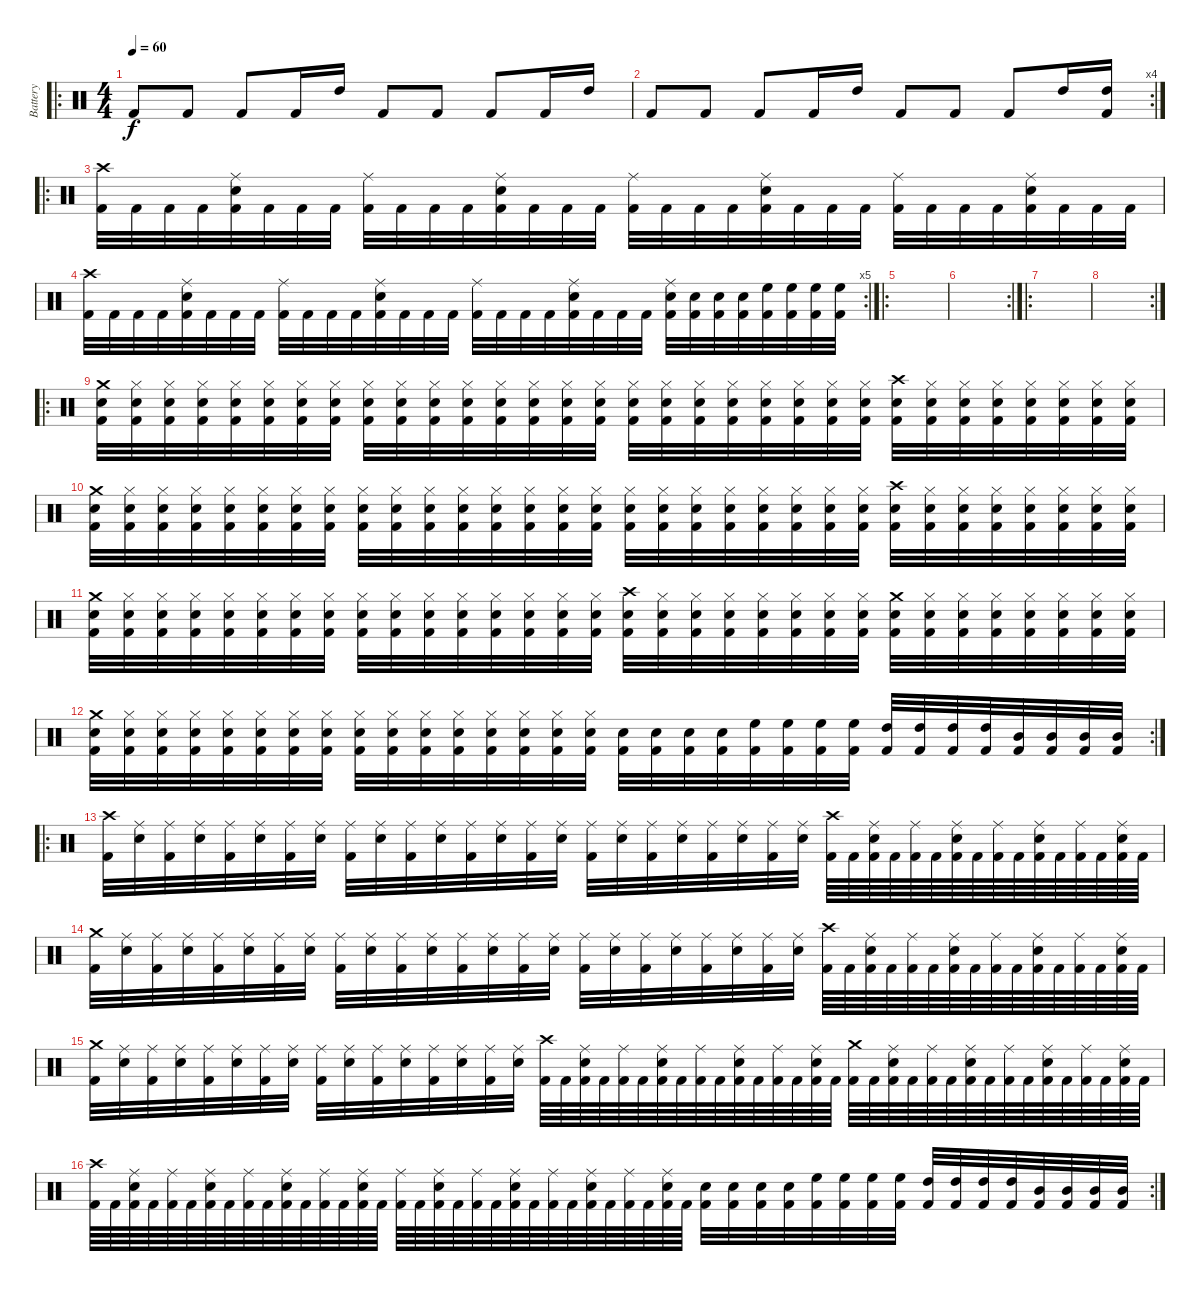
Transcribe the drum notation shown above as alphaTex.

\track ("Battery" "Battery") {instrument percussion}
\staff {score}
\articulation defaults
\ro
\ts (4 4)
\tempo 60
\clef neutral
\ks c "Kick (hit) 2".8{dy f} "Kick (hit) 2".8 "Kick (hit) 2".8 "Kick (hit) 2".16 "High Tom (hit)".16 "Kick (hit) 2".8 "Kick (hit) 2".8 "Kick (hit) 2".8 "Kick (hit) 2".16 "High Tom (hit)".16
|
\rc 4 "Kick (hit) 2".8 "Kick (hit) 2".8 "Kick (hit) 2".8 "Kick (hit) 2".16 "High Tom (hit)".16 "Kick (hit) 2".8 "Kick (hit) 2".8 "Kick (hit) 2".8 "High Tom (hit)".16
("Kick (hit) 2" "High Tom (hit)").16 |
\ro
("Kick (hit) 2" "Crash high (hit)").32 "Kick (hit) 2".32 "Kick (hit) 2".32 "Kick (hit) 2".32 ("Kick (hit) 2" "Ride (middle)" "Snare (hit) 2").32 "Kick (hit) 2".32 "Kick (hit) 2".32 "Kick (hit) 2".32 ("Kick (hit) 2" "Ride (middle)").32 "Kick (hit) 2".32 "Kick (hit) 2".32 "Kick (hit) 2".32 ("Kick (hit) 2" "Ride (middle)" "Snare (hit) 2").32 "Kick (hit) 2".32 "Kick (hit) 2".32 "Kick (hit) 2".32 ("Kick (hit) 2" "Ride (middle)").32 "Kick (hit) 2".32 "Kick (hit) 2".32 "Kick (hit) 2".32 ("Kick (hit) 2" "Ride (middle)" "Snare (hit) 2").32 "Kick (hit) 2".32 "Kick (hit) 2".32 "Kick (hit) 2".32 ("Kick (hit) 2" "Ride (middle)").32 "Kick (hit) 2".32 "Kick (hit) 2".32 "Kick (hit) 2".32 ("Kick (hit) 2" "Ride (middle)" "Snare (hit) 2").32 "Kick (hit) 2".32 "Kick (hit) 2".32 "Kick (hit) 2".32 |
\rc 5
("Kick (hit) 2" "Crash high (hit)").32 "Kick (hit) 2".32 "Kick (hit) 2".32 "Kick (hit) 2".32 ("Kick (hit) 2" "Ride (middle)" "Snare (hit) 2").32 "Kick (hit) 2".32 "Kick (hit) 2".32 "Kick (hit) 2".32 ("Kick (hit) 2" "Ride (middle)").32 "Kick (hit) 2".32 "Kick (hit) 2".32 "Kick (hit) 2".32 ("Kick (hit) 2" "Ride (middle)" "Snare (hit) 2").32 "Kick (hit) 2".32 "Kick (hit) 2".32 "Kick (hit) 2".32 ("Kick (hit) 2" "Ride (middle)").32 "Kick (hit) 2".32 "Kick (hit) 2".32 "Kick (hit) 2".32 ("Kick (hit) 2" "Ride (middle)" "Snare (hit) 2").32 "Kick (hit) 2".32 "Kick (hit) 2".32 "Kick (hit) 2".32 ("Kick (hit) 2" "Ride (middle)" "Snare (hit) 2").32 ("Kick (hit) 2" "Snare (hit) 2").32 ("Kick (hit) 2" "Snare (hit) 2").32 ("Kick (hit) 2" "Snare (hit) 2").32 ("Kick (hit) 2" "High Floor Tom (hit)").32 ("Kick (hit) 2" "High Floor Tom (hit)").32 ("Kick (hit) 2" "High Floor Tom (hit)").32 ("Kick (hit) 2" "High Floor Tom (hit)").32 |
\ro
|
\rc 2
|
\ro
|
\rc 2
|
\ro
("Kick (hit) 2" "Snare (hit) 2" "Crash medium (hit)").32 ("Kick (hit) 2" "Snare (hit) 2" "Hi-Hat (closed)").32 ("Kick (hit) 2" "Snare (hit) 2" "Hi-Hat (closed)").32 ("Kick (hit) 2" "Snare (hit) 2" "Hi-Hat (closed)").32 ("Kick (hit) 2" "Snare (hit) 2" "Hi-Hat (closed)").32 ("Kick (hit) 2" "Snare (hit) 2" "Hi-Hat (closed)").32 ("Kick (hit) 2" "Snare (hit) 2" "Hi-Hat (closed)").32 ("Kick (hit) 2" "Snare (hit) 2" "Hi-Hat (closed)").32 ("Kick (hit) 2" "Snare (hit) 2" "Hi-Hat (closed)").32 ("Kick (hit) 2" "Snare (hit) 2" "Hi-Hat (closed)").32 ("Kick (hit) 2" "Snare (hit) 2" "Hi-Hat (closed)").32 ("Kick (hit) 2" "Snare (hit) 2" "Hi-Hat (closed)").32 ("Kick (hit) 2" "Snare (hit) 2" "Hi-Hat (closed)").32 ("Kick (hit) 2" "Snare (hit) 2" "Hi-Hat (closed)").32 ("Kick (hit) 2" "Snare (hit) 2" "Hi-Hat (closed)").32 ("Kick (hit) 2" "Snare (hit) 2" "Hi-Hat (closed)").32 ("Kick (hit) 2" "Snare (hit) 2" "Hi-Hat (closed)").32 ("Kick (hit) 2" "Snare (hit) 2" "Hi-Hat (closed)").32 ("Kick (hit) 2" "Snare (hit) 2" "Hi-Hat (closed)").32 ("Kick (hit) 2" "Snare (hit) 2" "Hi-Hat (closed)").32 ("Kick (hit) 2" "Snare (hit) 2" "Hi-Hat (closed)").32 ("Kick (hit) 2" "Snare (hit) 2" "Hi-Hat (closed)").32 ("Kick (hit) 2" "Snare (hit) 2" "Hi-Hat (closed)").32 ("Kick (hit) 2" "Snare (hit) 2" "Hi-Hat (closed)").32 ("Kick (hit) 2" "Snare (hit) 2" "Crash high (hit)").32 ("Kick (hit) 2" "Snare (hit) 2" "Hi-Hat (closed)").32 ("Kick (hit) 2" "Snare (hit) 2" "Hi-Hat (closed)").32 ("Kick (hit) 2" "Snare (hit) 2" "Hi-Hat (closed)").32 ("Kick (hit) 2" "Snare (hit) 2" "Hi-Hat (closed)").32 ("Kick (hit) 2" "Snare (hit) 2" "Hi-Hat (closed)").32 ("Kick (hit) 2" "Snare (hit) 2" "Hi-Hat (closed)").32 ("Kick (hit) 2" "Snare (hit) 2" "Hi-Hat (closed)").32 |
("Kick (hit) 2" "Snare (hit) 2" "Crash medium (hit)").32 ("Kick (hit) 2" "Snare (hit) 2" "Hi-Hat (closed)").32 ("Kick (hit) 2" "Snare (hit) 2" "Hi-Hat (closed)").32 ("Kick (hit) 2" "Snare (hit) 2" "Hi-Hat (closed)").32 ("Kick (hit) 2" "Snare (hit) 2" "Hi-Hat (closed)").32 ("Kick (hit) 2" "Snare (hit) 2" "Hi-Hat (closed)").32 ("Kick (hit) 2" "Snare (hit) 2" "Hi-Hat (closed)").32 ("Kick (hit) 2" "Snare (hit) 2" "Hi-Hat (closed)").32 ("Kick (hit) 2" "Snare (hit) 2" "Hi-Hat (closed)").32 ("Kick (hit) 2" "Snare (hit) 2" "Hi-Hat (closed)").32 ("Kick (hit) 2" "Snare (hit) 2" "Hi-Hat (closed)").32 ("Kick (hit) 2" "Snare (hit) 2" "Hi-Hat (closed)").32 ("Kick (hit) 2" "Snare (hit) 2" "Hi-Hat (closed)").32 ("Kick (hit) 2" "Snare (hit) 2" "Hi-Hat (closed)").32 ("Kick (hit) 2" "Snare (hit) 2" "Hi-Hat (closed)").32 ("Kick (hit) 2" "Snare (hit) 2" "Hi-Hat (closed)").32 ("Kick (hit) 2" "Snare (hit) 2" "Hi-Hat (closed)").32 ("Kick (hit) 2" "Snare (hit) 2" "Hi-Hat (closed)").32 ("Kick (hit) 2" "Snare (hit) 2" "Hi-Hat (closed)").32 ("Kick (hit) 2" "Snare (hit) 2" "Hi-Hat (closed)").32 ("Kick (hit) 2" "Snare (hit) 2" "Hi-Hat (closed)").32 ("Kick (hit) 2" "Snare (hit) 2" "Hi-Hat (closed)").32 ("Kick (hit) 2" "Snare (hit) 2" "Hi-Hat (closed)").32 ("Kick (hit) 2" "Snare (hit) 2" "Hi-Hat (closed)").32 ("Kick (hit) 2" "Snare (hit) 2" "Crash high (hit)").32 ("Kick (hit) 2" "Snare (hit) 2" "Hi-Hat (closed)").32 ("Kick (hit) 2" "Snare (hit) 2" "Hi-Hat (closed)").32 ("Kick (hit) 2" "Snare (hit) 2" "Hi-Hat (closed)").32 ("Kick (hit) 2" "Snare (hit) 2" "Hi-Hat (closed)").32 ("Kick (hit) 2" "Snare (hit) 2" "Hi-Hat (closed)").32 ("Kick (hit) 2" "Snare (hit) 2" "Hi-Hat (closed)").32 ("Kick (hit) 2" "Snare (hit) 2" "Hi-Hat (closed)").32 |
("Kick (hit) 2" "Snare (hit) 2" "Crash medium (hit)").32 ("Kick (hit) 2" "Snare (hit) 2" "Hi-Hat (closed)").32 ("Kick (hit) 2" "Snare (hit) 2" "Hi-Hat (closed)").32 ("Kick (hit) 2" "Snare (hit) 2" "Hi-Hat (closed)").32 ("Kick (hit) 2" "Snare (hit) 2" "Hi-Hat (closed)").32 ("Kick (hit) 2" "Snare (hit) 2" "Hi-Hat (closed)").32 ("Kick (hit) 2" "Snare (hit) 2" "Hi-Hat (closed)").32 ("Kick (hit) 2" "Snare (hit) 2" "Hi-Hat (closed)").32 ("Kick (hit) 2" "Snare (hit) 2" "Hi-Hat (closed)").32 ("Kick (hit) 2" "Snare (hit) 2" "Hi-Hat (closed)").32 ("Kick (hit) 2" "Snare (hit) 2" "Hi-Hat (closed)").32 ("Kick (hit) 2" "Snare (hit) 2" "Hi-Hat (closed)").32 ("Kick (hit) 2" "Snare (hit) 2" "Hi-Hat (closed)").32 ("Kick (hit) 2" "Snare (hit) 2" "Hi-Hat (closed)").32 ("Kick (hit) 2" "Snare (hit) 2" "Hi-Hat (closed)").32 ("Kick (hit) 2" "Snare (hit) 2" "Hi-Hat (closed)").32 ("Kick (hit) 2" "Snare (hit) 2" "Crash high (hit)").32 ("Kick (hit) 2" "Snare (hit) 2" "Hi-Hat (closed)").32 ("Kick (hit) 2" "Snare (hit) 2" "Hi-Hat (closed)").32 ("Kick (hit) 2" "Snare (hit) 2" "Hi-Hat (closed)").32 ("Kick (hit) 2" "Snare (hit) 2" "Hi-Hat (closed)").32 ("Kick (hit) 2" "Snare (hit) 2" "Hi-Hat (closed)").32 ("Kick (hit) 2" "Snare (hit) 2" "Hi-Hat (closed)").32 ("Kick (hit) 2" "Snare (hit) 2" "Hi-Hat (closed)").32 ("Kick (hit) 2" "Snare (hit) 2" "Crash medium (hit)").32 ("Kick (hit) 2" "Snare (hit) 2" "Hi-Hat (closed)").32 ("Kick (hit) 2" "Snare (hit) 2" "Hi-Hat (closed)").32 ("Kick (hit) 2" "Snare (hit) 2" "Hi-Hat (closed)").32 ("Kick (hit) 2" "Snare (hit) 2" "Hi-Hat (closed)").32 ("Kick (hit) 2" "Snare (hit) 2" "Hi-Hat (closed)").32 ("Kick (hit) 2" "Snare (hit) 2" "Hi-Hat (closed)").32 ("Kick (hit) 2" "Snare (hit) 2" "Hi-Hat (closed)").32 |
\rc 2
("Kick (hit) 2" "Snare (hit) 2" "Crash medium (hit)").32 ("Kick (hit) 2" "Snare (hit) 2" "Hi-Hat (closed)").32 ("Kick (hit) 2" "Snare (hit) 2" "Hi-Hat (closed)").32 ("Kick (hit) 2" "Snare (hit) 2" "Hi-Hat (closed)").32 ("Kick (hit) 2" "Snare (hit) 2" "Hi-Hat (closed)").32 ("Kick (hit) 2" "Snare (hit) 2" "Hi-Hat (closed)").32 ("Kick (hit) 2" "Snare (hit) 2" "Hi-Hat (closed)").32 ("Kick (hit) 2" "Snare (hit) 2" "Hi-Hat (closed)").32 ("Kick (hit) 2" "Snare (hit) 2" "Hi-Hat (closed)").32 ("Kick (hit) 2" "Snare (hit) 2" "Hi-Hat (closed)").32 ("Kick (hit) 2" "Snare (hit) 2" "Hi-Hat (closed)").32 ("Kick (hit) 2" "Snare (hit) 2" "Hi-Hat (closed)").32 ("Kick (hit) 2" "Snare (hit) 2" "Hi-Hat (closed)").32 ("Kick (hit) 2" "Snare (hit) 2" "Hi-Hat (closed)").32 ("Kick (hit) 2" "Snare (hit) 2" "Hi-Hat (closed)").32 ("Kick (hit) 2" "Snare (hit) 2" "Hi-Hat (closed)").32 ("Kick (hit) 2" "Snare (hit) 2").32 ("Kick (hit) 2" "Snare (hit) 2").32 ("Kick (hit) 2" "Snare (hit) 2").32 ("Kick (hit) 2" "Snare (hit) 2").32 ("Kick (hit) 2" "High Floor Tom (hit)").32 ("Kick (hit) 2" "High Floor Tom (hit)").32 ("Kick (hit) 2" "High Floor Tom (hit)").32 ("Kick (hit) 2" "High Floor Tom (hit)").32 ("Kick (hit) 2" "High Tom (hit)").32 ("Kick (hit) 2" "High Tom (hit)").32 ("Kick (hit) 2" "High Tom (hit)").32 ("Kick (hit) 2" "High Tom (hit)").32 ("Kick (hit) 2" "Mid Tom (hit)").32 ("Kick (hit) 2" "Mid Tom (hit)").32 ("Kick (hit) 2" "Mid Tom (hit)").32 ("Kick (hit) 2" "Mid Tom (hit)").32 |
\ro
("Kick (hit) 2" "Crash high (hit)").32 ("Snare (hit) 2" "Ride (middle)").32 ("Kick (hit) 2" "Ride (middle)").32 ("Snare (hit) 2" "Ride (middle)").32 ("Kick (hit) 2" "Ride (middle)").32 ("Snare (hit) 2" "Ride (middle)").32 ("Kick (hit) 2" "Ride (middle)").32 ("Snare (hit) 2" "Ride (middle)").32 ("Kick (hit) 2" "Ride (middle)").32 ("Snare (hit) 2" "Ride (middle)").32 ("Kick (hit) 2" "Ride (middle)").32 ("Snare (hit) 2" "Ride (middle)").32 ("Kick (hit) 2" "Ride (middle)").32 ("Snare (hit) 2" "Ride (middle)").32 ("Kick (hit) 2" "Ride (middle)").32 ("Snare (hit) 2" "Ride (middle)").32 ("Kick (hit) 2" "Ride (middle)").32 ("Snare (hit) 2" "Ride (middle)").32 ("Kick (hit) 2" "Ride (middle)").32 ("Snare (hit) 2" "Ride (middle)").32 ("Kick (hit) 2" "Ride (middle)").32 ("Snare (hit) 2" "Ride (middle)").32 ("Kick (hit) 2" "Ride (middle)").32 ("Snare (hit) 2" "Ride (middle)").32 ("Kick (hit) 2" "Crash high (hit)").64 "Kick (hit) 2".64 ("Kick (hit) 2" "Snare (hit) 2" "Ride (middle)").64 "Kick (hit) 2".64 ("Kick (hit) 2" "Ride (middle)").64 "Kick (hit) 2".64 ("Kick (hit) 2" "Snare (hit) 2" "Ride (middle)").64 "Kick (hit) 2".64 ("Kick (hit) 2" "Ride (middle)").64 "Kick (hit) 2".64 ("Kick (hit) 2" "Snare (hit) 2" "Ride (middle)").64 "Kick (hit) 2".64 ("Kick (hit) 2" "Ride (middle)").64 "Kick (hit) 2".64 ("Kick (hit) 2" "Snare (hit) 2" "Ride (middle)").64 "Kick (hit) 2".64 |
("Kick (hit) 2" "Crash medium (hit)").32 ("Snare (hit) 2" "Ride (middle)").32 ("Kick (hit) 2" "Ride (middle)").32 ("Snare (hit) 2" "Ride (middle)").32 ("Kick (hit) 2" "Ride (middle)").32 ("Snare (hit) 2" "Ride (middle)").32 ("Kick (hit) 2" "Ride (middle)").32 ("Snare (hit) 2" "Ride (middle)").32 ("Kick (hit) 2" "Ride (middle)").32 ("Snare (hit) 2" "Ride (middle)").32 ("Kick (hit) 2" "Ride (middle)").32 ("Snare (hit) 2" "Ride (middle)").32 ("Kick (hit) 2" "Ride (middle)").32 ("Snare (hit) 2" "Ride (middle)").32 ("Kick (hit) 2" "Ride (middle)").32 ("Snare (hit) 2" "Ride (middle)").32 ("Kick (hit) 2" "Ride (middle)").32 ("Snare (hit) 2" "Ride (middle)").32 ("Kick (hit) 2" "Ride (middle)").32 ("Snare (hit) 2" "Ride (middle)").32 ("Kick (hit) 2" "Ride (middle)").32 ("Snare (hit) 2" "Ride (middle)").32 ("Kick (hit) 2" "Ride (middle)").32 ("Snare (hit) 2" "Ride (middle)").32 ("Kick (hit) 2" "Crash high (hit)").64 "Kick (hit) 2".64 ("Kick (hit) 2" "Snare (hit) 2" "Ride (middle)").64 "Kick (hit) 2".64 ("Kick (hit) 2" "Ride (middle)").64 "Kick (hit) 2".64 ("Kick (hit) 2" "Snare (hit) 2" "Ride (middle)").64 "Kick (hit) 2".64 ("Kick (hit) 2" "Ride (middle)").64 "Kick (hit) 2".64 ("Kick (hit) 2" "Snare (hit) 2" "Ride (middle)").64 "Kick (hit) 2".64 ("Kick (hit) 2" "Ride (middle)").64 "Kick (hit) 2".64 ("Kick (hit) 2" "Snare (hit) 2" "Ride (middle)").64 "Kick (hit) 2".64 |
("Kick (hit) 2" "Crash medium (hit)").32 ("Snare (hit) 2" "Ride (middle)").32 ("Kick (hit) 2" "Ride (middle)").32 ("Snare (hit) 2" "Ride (middle)").32 ("Kick (hit) 2" "Ride (middle)").32 ("Snare (hit) 2" "Ride (middle)").32 ("Kick (hit) 2" "Ride (middle)").32 ("Snare (hit) 2" "Ride (middle)").32 ("Kick (hit) 2" "Ride (middle)").32 ("Snare (hit) 2" "Ride (middle)").32 ("Kick (hit) 2" "Ride (middle)").32 ("Snare (hit) 2" "Ride (middle)").32 ("Kick (hit) 2" "Ride (middle)").32 ("Snare (hit) 2" "Ride (middle)").32 ("Kick (hit) 2" "Ride (middle)").32 ("Snare (hit) 2" "Ride (middle)").32 ("Kick (hit) 2" "Crash high (hit)").64 "Kick (hit) 2".64 ("Kick (hit) 2" "Snare (hit) 2" "Ride (middle)").64 "Kick (hit) 2".64 ("Kick (hit) 2" "Ride (middle)").64 "Kick (hit) 2".64 ("Kick (hit) 2" "Snare (hit) 2" "Ride (middle)").64 "Kick (hit) 2".64 ("Kick (hit) 2" "Ride (middle)").64 "Kick (hit) 2".64 ("Kick (hit) 2" "Snare (hit) 2" "Ride (middle)").64 "Kick (hit) 2".64 ("Kick (hit) 2" "Ride (middle)").64 "Kick (hit) 2".64 ("Kick (hit) 2" "Snare (hit) 2" "Ride (middle)").64 "Kick (hit) 2".64 ("Kick (hit) 2" "Crash medium (hit)").64 "Kick (hit) 2".64 ("Kick (hit) 2" "Snare (hit) 2" "Ride (middle)").64 "Kick (hit) 2".64 ("Kick (hit) 2" "Ride (middle)").64 "Kick (hit) 2".64 ("Kick (hit) 2" "Snare (hit) 2" "Ride (middle)").64 "Kick (hit) 2".64 ("Kick (hit) 2" "Ride (middle)").64 "Kick (hit) 2".64 ("Kick (hit) 2" "Snare (hit) 2" "Ride (middle)").64 "Kick (hit) 2".64 ("Kick (hit) 2" "Ride (middle)").64 "Kick (hit) 2".64 ("Kick (hit) 2" "Snare (hit) 2" "Ride (middle)").64 "Kick (hit) 2".64 |
\rc 2
("Kick (hit) 2" "Crash high (hit)").64 "Kick (hit) 2".64 ("Kick (hit) 2" "Snare (hit) 2" "Ride (middle)").64 "Kick (hit) 2".64 ("Kick (hit) 2" "Ride (middle)").64 "Kick (hit) 2".64 ("Kick (hit) 2" "Snare (hit) 2" "Ride (middle)").64 "Kick (hit) 2".64 ("Kick (hit) 2" "Ride (middle)").64 "Kick (hit) 2".64 ("Kick (hit) 2" "Snare (hit) 2" "Ride (middle)").64 "Kick (hit) 2".64 ("Kick (hit) 2" "Ride (middle)").64 "Kick (hit) 2".64 ("Kick (hit) 2" "Snare (hit) 2" "Ride (middle)").64 "Kick (hit) 2".64 ("Kick (hit) 2" "Ride (middle)").64 "Kick (hit) 2".64 ("Kick (hit) 2" "Snare (hit) 2" "Ride (middle)").64 "Kick (hit) 2".64 ("Kick (hit) 2" "Ride (middle)").64 "Kick (hit) 2".64 ("Kick (hit) 2" "Snare (hit) 2" "Ride (middle)").64 "Kick (hit) 2".64 ("Kick (hit) 2" "Ride (middle)").64 "Kick (hit) 2".64 ("Kick (hit) 2" "Snare (hit) 2" "Ride (middle)").64 "Kick (hit) 2".64 ("Kick (hit) 2" "Ride (middle)").64 "Kick (hit) 2".64 ("Kick (hit) 2" "Snare (hit) 2" "Ride (middle)").64 "Kick (hit) 2".64 ("Kick (hit) 2" "Snare (hit) 2").32 ("Kick (hit) 2" "Snare (hit) 2").32 ("Kick (hit) 2" "Snare (hit) 2").32 ("Kick (hit) 2" "Snare (hit) 2").32 ("Kick (hit) 2" "High Floor Tom (hit)").32 ("Kick (hit) 2" "High Floor Tom (hit)").32 ("Kick (hit) 2" "High Floor Tom (hit)").32 ("Kick (hit) 2" "High Floor Tom (hit)").32 ("Kick (hit) 2" "High Tom (hit)").32 ("Kick (hit) 2" "High Tom (hit)").32 ("Kick (hit) 2" "High Tom (hit)").32 ("Kick (hit) 2" "High Tom (hit)").32 ("Kick (hit) 2" "Mid Tom (hit)").32 ("Kick (hit) 2" "Mid Tom (hit)").32 ("Kick (hit) 2" "Mid Tom (hit)").32 ("Kick (hit) 2" "Mid Tom (hit)").32
